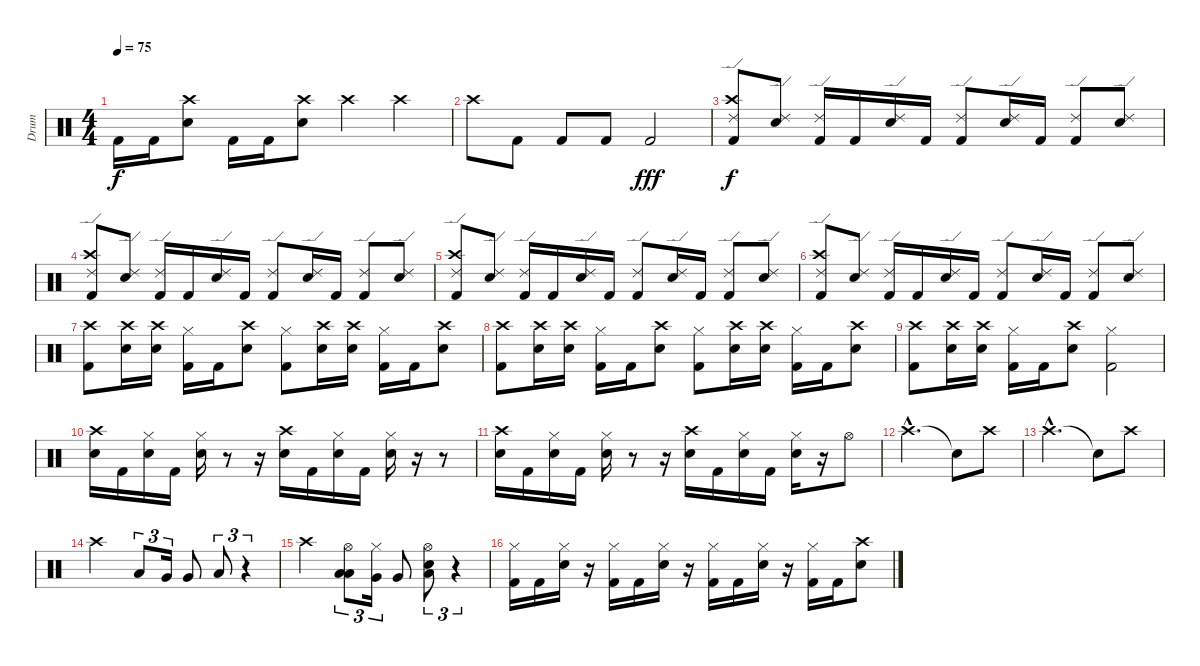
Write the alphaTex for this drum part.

\track ("Drum" "Drum") {instrument percussion}
\staff {score}
\articulation defaults
\ts (4 4)
\tempo 75
\clef neutral
\ks c "Kick (hit) 2".16{dy f} "Kick (hit) 2".16
("Crash high (hit)" "Electric Snare (hit)").8 "Kick (hit) 2".16 "Kick (hit) 2".16 ("Crash high (hit)" "Electric Snare (hit)").8 "Crash high (hit)".4 "Crash high (hit)".4 |
"Crash high (hit)".8 "Kick (hit) 2".8 "Kick (hit) 2".8 "Kick (hit) 2".8 "Kick (hit) 2".2{dy fff} |
("Ride (edge) 2" "Kick (hit) 2" "Crash high (hit)").8{dy f} ("Ride (edge) 2" "Electric Snare (hit)").8 ("Ride (edge) 2" "Kick (hit) 2").16 "Kick (hit) 2".16 ("Ride (edge) 2" "Electric Snare (hit)").16 "Kick (hit) 2".16 ("Ride (edge) 2" "Kick (hit) 2").8 ("Ride (edge) 2" "Electric Snare (hit)").16 "Kick (hit) 2".16 ("Ride (edge) 2" "Kick (hit) 2").8 ("Ride (edge) 2" "Electric Snare (hit)").8 |
("Ride (edge) 2" "Kick (hit) 2" "Crash high (hit)").8 ("Ride (edge) 2" "Electric Snare (hit)").8 ("Ride (edge) 2" "Kick (hit) 2").16 "Kick (hit) 2".16 ("Ride (edge) 2" "Electric Snare (hit)").16 "Kick (hit) 2".16 ("Ride (edge) 2" "Kick (hit) 2").8 ("Ride (edge) 2" "Electric Snare (hit)").16 "Kick (hit) 2".16 ("Ride (edge) 2" "Kick (hit) 2").8 ("Ride (edge) 2" "Electric Snare (hit)").8 |
("Ride (edge) 2" "Kick (hit) 2" "Crash high (hit)").8 ("Ride (edge) 2" "Electric Snare (hit)").8 ("Ride (edge) 2" "Kick (hit) 2").16 "Kick (hit) 2".16 ("Ride (edge) 2" "Electric Snare (hit)").16 "Kick (hit) 2".16 ("Ride (edge) 2" "Kick (hit) 2").8 ("Ride (edge) 2" "Electric Snare (hit)").16 "Kick (hit) 2".16 ("Ride (edge) 2" "Kick (hit) 2").8 ("Ride (edge) 2" "Electric Snare (hit)").8 |
("Ride (edge) 2" "Kick (hit) 2" "Crash high (hit)").8 ("Ride (edge) 2" "Electric Snare (hit)").8 ("Ride (edge) 2" "Kick (hit) 2").16 "Kick (hit) 2".16 ("Ride (edge) 2" "Electric Snare (hit)").16 "Kick (hit) 2".16 ("Ride (edge) 2" "Kick (hit) 2").8 ("Ride (edge) 2" "Electric Snare (hit)").16 "Kick (hit) 2".16 ("Ride (edge) 2" "Kick (hit) 2").8 ("Ride (edge) 2" "Electric Snare (hit)").8 |
("Crash high (hit)" "Kick (hit) 2").8 ("Crash high (hit)" "Electric Snare (hit)").16 ("Crash high (hit)" "Electric Snare (hit)").16 ("Hi-Hat (closed)" "Kick (hit) 2").16 "Kick (hit) 2".16 ("Crash high (hit)" "Electric Snare (hit)").8 ("Hi-Hat (closed)" "Kick (hit) 2").8 ("Crash high (hit)" "Electric Snare (hit)").16 ("Crash high (hit)" "Electric Snare (hit)").16 ("Hi-Hat (closed)" "Kick (hit) 2").16 "Kick (hit) 2".16 ("Crash high (hit)" "Electric Snare (hit)").8 |
("Crash high (hit)" "Kick (hit) 2").8 ("Crash high (hit)" "Electric Snare (hit)").16 ("Crash high (hit)" "Electric Snare (hit)").16 ("Hi-Hat (closed)" "Kick (hit) 2").16 "Kick (hit) 2".16 ("Crash high (hit)" "Electric Snare (hit)").8 ("Hi-Hat (closed)" "Kick (hit) 2").8 ("Crash high (hit)" "Electric Snare (hit)").16 ("Crash high (hit)" "Electric Snare (hit)").16 ("Hi-Hat (closed)" "Kick (hit) 2").16 "Kick (hit) 2".16 ("Crash high (hit)" "Electric Snare (hit)").8 |
("Crash high (hit)" "Kick (hit) 2").8 ("Crash high (hit)" "Electric Snare (hit)").16 ("Crash high (hit)" "Electric Snare (hit)").16 ("Hi-Hat (closed)" "Kick (hit) 2").16 "Kick (hit) 2".16 ("Crash high (hit)" "Electric Snare (hit)").8 ("Hi-Hat (closed)" "Kick (hit) 2").2 |
("Crash high (hit)" "Electric Snare (hit)").16 "Kick (hit) 2".16 ("Hi-Hat (closed)" "Electric Snare (hit)").16 "Kick (hit) 2".16 ("Hi-Hat (closed)" "Electric Snare (hit)").16 r.8 r.16 ("Crash high (hit)" "Electric Snare (hit)").16 "Kick (hit) 2".16 ("Hi-Hat (closed)" "Electric Snare (hit)").16 "Kick (hit) 2".16 ("Hi-Hat (closed)" "Electric Snare (hit)").16 r.16 r.8 |
("Crash high (hit)" "Electric Snare (hit)").16 "Kick (hit) 2".16 ("Hi-Hat (closed)" "Electric Snare (hit)").16 "Kick (hit) 2".16 ("Hi-Hat (closed)" "Electric Snare (hit)").16 r.8 r.16 ("Crash high (hit)" "Electric Snare (hit)").16 "Kick (hit) 2".16 ("Hi-Hat (closed)" "Electric Snare (hit)").16 "Kick (hit) 2".16 ("Hi-Hat (closed)" "Electric Snare (hit)").16 r.16 "Hi-Hat (open)".8 |
"Crash high (hit)"{hac}.2{d} "Snare (hit)"{t}.8 "Crash high (hit)".8 |
"Crash high (hit)"{hac}.2{d} "Snare (hit)"{t}.8 "Crash high (hit)".8 |
"Crash high (hit)".2 "Low Tom (hit)".8{tu (3 2)} "Very Low Tom (hit)".16{tu (3 2)} "Very Low Tom (hit)".8 "Low Floor Tom (hit)".8{tu (3 2)} r.4{tu (3 2)} |
"Crash high (hit)".2 ("Low Floor Tom (hit)" "Hi-Hat (open)" "Low Tom (hit)").8{tu (3 2)} ("Hi-Hat (closed)" "Very Low Tom (hit)").16{tu (3 2)} "Very Low Tom (hit)".8 ("Electric Snare (hit)" "Hi-Hat (open)" "Low Floor Tom (hit)").8{tu (3 2)} r.4{tu (3 2)} |
("Hi-Hat (closed)" "Kick (hit) 2").16 "Kick (hit) 2".16 ("Hi-Hat (closed)" "Electric Snare (hit)").16 r.16 ("Hi-Hat (closed)" "Kick (hit) 2").16 "Kick (hit) 2".16 ("Hi-Hat (closed)" "Electric Snare (hit)").16 r.16 ("Hi-Hat (closed)" "Kick (hit) 2").16 "Kick (hit) 2".16 ("Hi-Hat (closed)" "Electric Snare (hit)").16 r.16 ("Hi-Hat (closed)" "Kick (hit) 2").16 "Kick (hit) 2".16 ("Crash high (hit)" "Electric Snare (hit)").8
